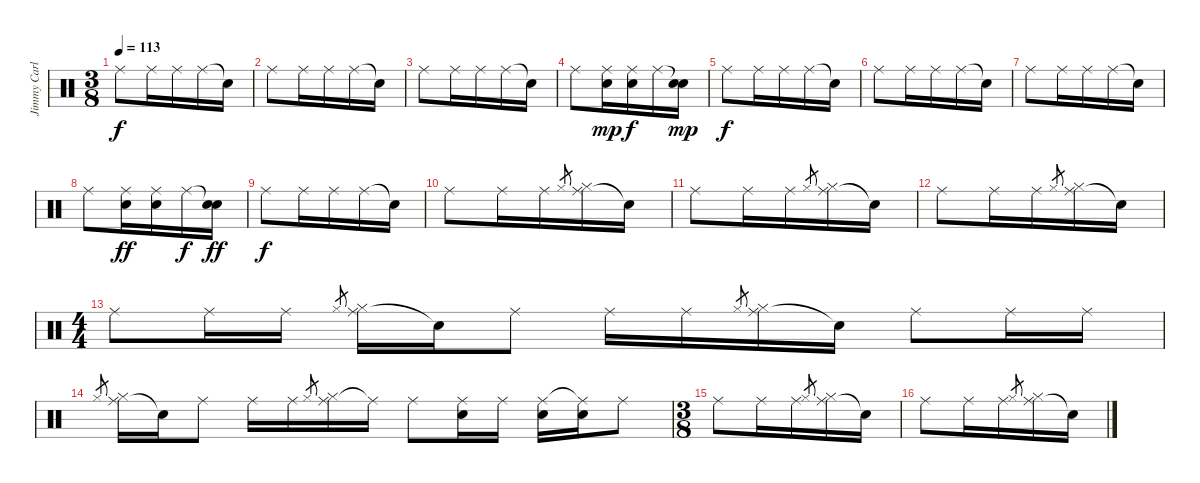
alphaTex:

\track ("Jimmy Carl Black" "Jimmy Carl") {instrument percussion}
\staff {score}
\articulation defaults
\ts (3 8)
\tempo 113
\clef neutral
\ks c "Ride (middle)".8{dy f} "Ride (middle)".16 "Ride (middle)".16 "Ride (middle)".16 "Snare (hit)"{t}.16
|
"Ride (middle)".8 "Ride (middle)".16 "Ride (middle)".16 "Ride (middle)".16 "Snare (hit)"{t}.16 |
"Ride (middle)".8 "Ride (middle)".16 "Ride (middle)".16 "Ride (middle)".16 "Snare (hit)"{t}.16 |
"Ride (middle)".8 ("Ride (middle)" "Snare (hit) 2").16{dy mp} ("Ride (middle)" "Snare (hit) 2").16{dy f} "Ride (middle)".16 ("Snare (hit)"{t} "Snare (hit) 2").16{dy mp} |
"Ride (middle)".8{dy f} "Ride (middle)".16 "Ride (middle)".16 "Ride (middle)".16 "Snare (hit)"{t}.16 |
"Ride (middle)".8 "Ride (middle)".16 "Ride (middle)".16 "Ride (middle)".16 "Snare (hit)"{t}.16 |
"Ride (middle)".8 "Ride (middle)".16 "Ride (middle)".16 "Ride (middle)".16 "Snare (hit)"{t}.16 |
"Ride (middle)".8 ("Ride (middle)" "Snare (hit) 2").16{dy ff} ("Ride (middle)" "Snare (hit) 2").16 "Ride (middle)".16{dy f} ("Snare (hit)"{t} "Snare (hit) 2").16{dy ff} |
"Ride (middle)".8{dy f} "Ride (middle)".16 "Ride (middle)".16 "Ride (middle)".16 "Snare (hit)"{t}.16 |
"Ride (middle)".8 "Ride (middle)".16 "Ride (middle)".16 "Hi-Hat (closed)".8{gr} ("Ride (middle)" "Hi-Hat (closed)").16 "Snare (hit)"{t}.16 |
"Ride (middle)".8 "Ride (middle)".16 "Ride (middle)".16 "Hi-Hat (closed)".8{gr} ("Ride (middle)" "Hi-Hat (closed)").16 "Snare (hit)"{t}.16 |
"Ride (middle)".8 "Ride (middle)".16 "Ride (middle)".16 "Hi-Hat (closed)".8{gr} ("Ride (middle)" "Hi-Hat (closed)").16 "Snare (hit)"{t}.16 |
\ts (4 4)
"Ride (middle)".8 "Ride (middle)".16 "Ride (middle)".16 "Hi-Hat (closed)".8{gr} ("Ride (middle)" "Hi-Hat (closed)").16 "Snare (hit)"{t}.16 "Ride (middle)".8 "Ride (middle)".16 "Ride (middle)".16 "Hi-Hat (closed)".8{gr} ("Ride (middle)" "Hi-Hat (closed)").16 "Snare (hit)"{t}.16 "Ride (middle)".8 "Ride (middle)".16 "Ride (middle)".16 |
"Hi-Hat (closed)".8{gr} ("Ride (middle)" "Hi-Hat (closed)").16 "Snare (hit)"{t}.16 "Ride (middle)".8 "Ride (middle)".16 "Ride (middle)".16 "Hi-Hat (closed)".8{gr} ("Ride (middle)" "Hi-Hat (closed)").16 "Ride (middle)"{t}.16 "Ride (middle)".8 ("Ride (middle)" "Snare (hit) 2").16 "Ride (middle)".16 ("Ride (middle)" "Snare (hit) 2").16 ("Ride (middle)"{t} "Snare (hit) 2").16 "Ride (middle)".8 |
\ts (3 8)
"Ride (middle)".8 "Ride (middle)".16 "Ride (middle)".16 "Hi-Hat (closed)".8{gr} ("Ride (middle)" "Hi-Hat (closed)").16 "Snare (hit)"{t}.16 |
"Ride (middle)".8 "Ride (middle)".16 "Ride (middle)".16 "Hi-Hat (closed)".8{gr} ("Ride (middle)" "Hi-Hat (closed)").16 "Snare (hit)"{t}.16
